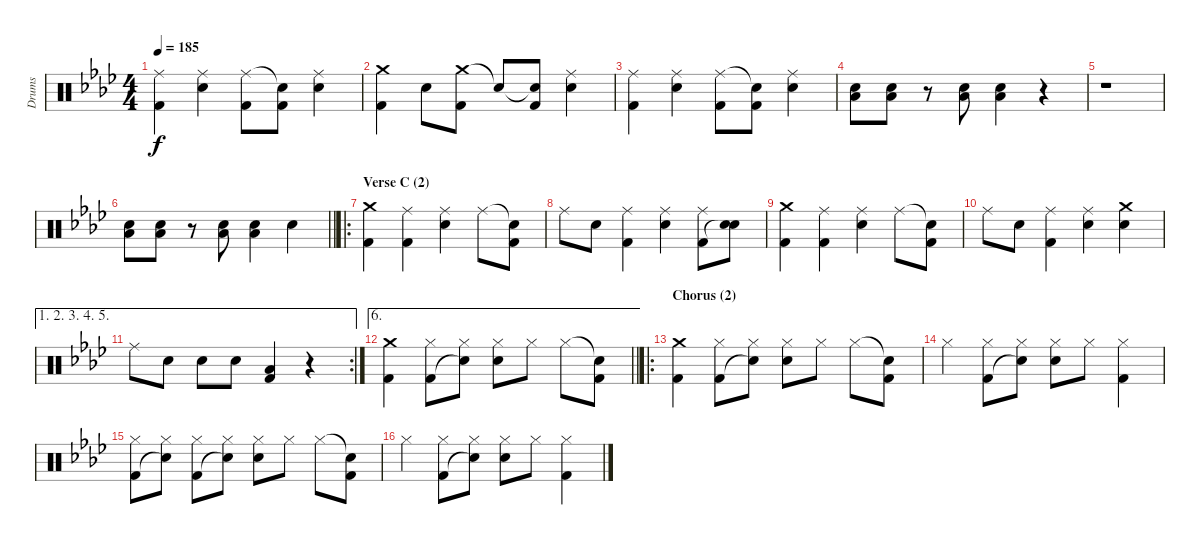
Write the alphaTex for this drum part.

\track ("Drums" "Drums") {instrument percussion}
\staff {score}
\articulation defaults
\ts (4 4)
\tempo 185
\clef neutral
\ks fminor
("Ride (middle)" "Kick (hit) 2").4{dy f} ("Ride (middle)" "Electric Snare (hit)").4 ("Ride (middle)" "Kick (hit) 2").8 ("Snare (hit)"{t} "Kick (hit) 2").8 ("Ride (middle)" "Electric Snare (hit)").4 |
("Crash medium (hit)" "Kick (hit) 2").4 "Electric Snare (hit)".8 ("Crash medium (hit)" "Kick (hit) 2").8 "Snare (hit)"{t}.8 ("Snare (hit)"{t} "Kick (hit) 2").8 ("Ride (middle)" "Electric Snare (hit)").4 |
("Ride (middle)" "Kick (hit) 2").4 ("Ride (middle)" "Electric Snare (hit)").4 ("Ride (middle)" "Kick (hit) 2").8 ("Snare (hit)"{t} "Kick (hit) 2").8 ("Ride (middle)" "Electric Snare (hit)").4 |
("Electric Snare (hit)" "Low Floor Tom (hit)").8 ("Electric Snare (hit)" "Low Floor Tom (hit)").8 r.8 ("Electric Snare (hit)" "Low Floor Tom (hit)").8 ("Electric Snare (hit)" "Low Floor Tom (hit)").4 r.4 |
r.1 |
\barLineRight lightlight
("Electric Snare (hit)" "Low Floor Tom (hit)").8 ("Electric Snare (hit)" "Low Floor Tom (hit)").8 r.8 ("Electric Snare (hit)" "Low Floor Tom (hit)").8 ("Electric Snare (hit)" "Low Floor Tom (hit)").4 "Electric Snare (hit)".4 |
\ro
\section ("" "Verse C (2)")
("Crash medium (hit)" "Kick (hit) 2").4 ("Ride (middle)" "Kick (hit) 2").4 ("Ride (middle)" "Electric Snare (hit)").4 "Ride (middle)".8 ("Snare (hit)"{t} "Kick (hit) 2").8 |
"Ride (middle)".8 "Electric Snare (hit)".8 ("Ride (middle)" "Kick (hit) 2").4 ("Ride (middle)" "Electric Snare (hit)").4 ("Ride (middle)" "Kick (hit) 2").8 ("Electric Snare (hit)" "Snare (hit)"{t}).8 |
("Crash medium (hit)" "Kick (hit) 2").4 ("Ride (middle)" "Kick (hit) 2").4 ("Ride (middle)" "Electric Snare (hit)").4 "Ride (middle)".8 ("Snare (hit)"{t} "Kick (hit) 2").8 |
"Ride (middle)".8 "Electric Snare (hit)".8 ("Ride (middle)" "Kick (hit) 2").4 ("Ride (middle)" "Electric Snare (hit)").4 ("Crash medium (hit)" "Electric Snare (hit)").4 |
\ae (1 2 3 4 5)
\rc 2 "Ride (middle)".8 "Electric Snare (hit)".8 "Electric Snare (hit)".8 "Electric Snare (hit)".8
("Low Floor Tom (hit)" "Kick (hit) 2").4 r.4 |
\ae 6
\barLineRight lightlight
("Crash medium (hit)" "Kick (hit) 2").4 ("Hi-Hat (closed)" "Kick (hit) 2").8 ("Hi-Hat (closed)" "Snare (hit)"{t}).8 ("Hi-Hat (closed)" "Electric Snare (hit)").8 "Hi-Hat (closed)".8 "Hi-Hat (closed)".8 ("Snare (hit)"{t} "Kick (hit) 2").8 |
\ro
\section ("" "Chorus (2)")
("Crash medium (hit)" "Kick (hit) 2").4 ("Hi-Hat (closed)" "Kick (hit) 2").8 ("Hi-Hat (closed)" "Snare (hit)"{t}).8 ("Hi-Hat (closed)" "Electric Snare (hit)").8 "Hi-Hat (closed)".8 "Hi-Hat (closed)".8 ("Snare (hit)"{t} "Kick (hit) 2").8 |
"Hi-Hat (closed)".4 ("Hi-Hat (closed)" "Kick (hit) 2").8 ("Hi-Hat (closed)" "Snare (hit)"{t}).8 ("Hi-Hat (closed)" "Electric Snare (hit)").8 "Hi-Hat (closed)".8 ("Hi-Hat (closed)" "Kick (hit) 2").4 |
("Hi-Hat (closed)" "Kick (hit) 2").8 ("Hi-Hat (closed)" "Snare (hit)"{t}).8 ("Hi-Hat (closed)" "Kick (hit) 2").8 ("Hi-Hat (closed)" "Snare (hit)"{t}).8 ("Hi-Hat (closed)" "Electric Snare (hit)").8 "Hi-Hat (closed)".8 "Hi-Hat (closed)".8 ("Snare (hit)"{t} "Kick (hit) 2").8 |
"Hi-Hat (closed)".4 ("Hi-Hat (closed)" "Kick (hit) 2").8 ("Hi-Hat (closed)" "Snare (hit)"{t}).8 ("Hi-Hat (closed)" "Electric Snare (hit)").8 "Hi-Hat (closed)".8 ("Hi-Hat (closed)" "Kick (hit) 2").4
